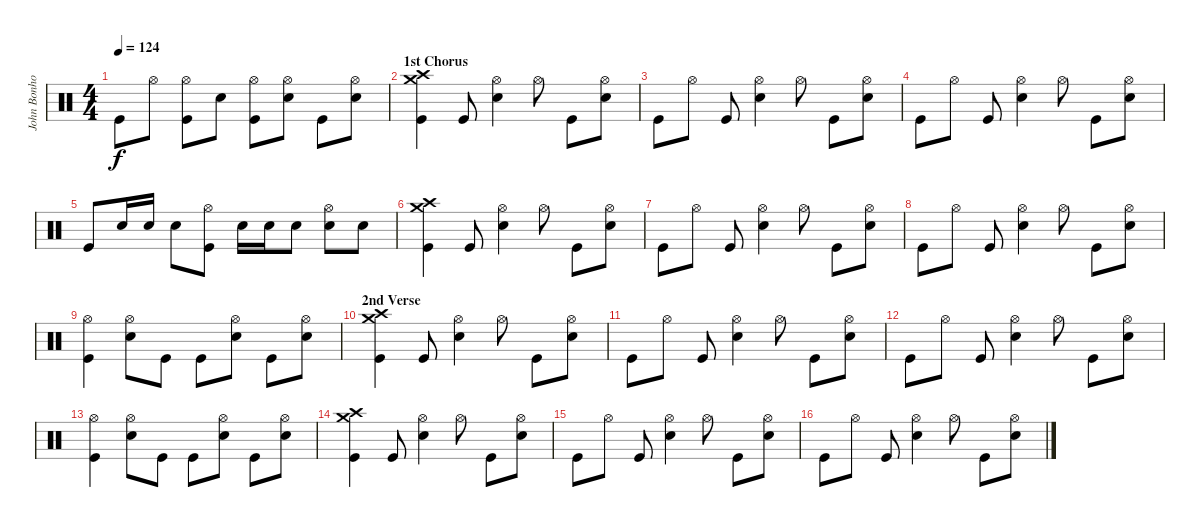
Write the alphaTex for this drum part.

\track ("John Bonhom" "John Bonho") {instrument percussion}
\staff {score}
\articulation defaults
\ts (4 4)
\tempo 124
\clef neutral
\ks c "Kick (hit)".8{dy f} "Hi-Hat (open)".8
("Hi-Hat (open)" "Kick (hit)").8 "Electric Snare (hit)".8 ("Hi-Hat (open)" "Kick (hit)").8 ("Hi-Hat (open)" "Electric Snare (hit)").8 "Kick (hit)".8 ("Hi-Hat (open)" "Electric Snare (hit)").8 |
\section ("" "1st Chorus")
("Crash high (hit)" "Crash medium (hit)" "Kick (hit)").4 "Kick (hit)".8 ("Hi-Hat (open)" "Electric Snare (hit)").4 "Hi-Hat (open)".8 "Kick (hit)".8 ("Hi-Hat (open)" "Electric Snare (hit)").8 |
"Kick (hit)".8 "Hi-Hat (open)".8 "Kick (hit)".8 ("Hi-Hat (open)" "Electric Snare (hit)").4 "Hi-Hat (open)".8 "Kick (hit)".8 ("Hi-Hat (open)" "Electric Snare (hit)").8 |
"Kick (hit)".8 "Hi-Hat (open)".8 "Kick (hit)".8 ("Hi-Hat (open)" "Electric Snare (hit)").4 "Hi-Hat (open)".8 "Kick (hit)".8 ("Hi-Hat (open)" "Electric Snare (hit)").8 |
"Kick (hit)".8 "Electric Snare (hit)".16 "Electric Snare (hit)".16 "Electric Snare (hit)".8 ("Hi-Hat (open)" "Kick (hit)").8 "Electric Snare (hit)".16 "Electric Snare (hit)".16 "Electric Snare (hit)".8 ("Hi-Hat (open)" "Electric Snare (hit)").8 "Electric Snare (hit)".8 |
("Crash high (hit)" "Crash medium (hit)" "Kick (hit)").4 "Kick (hit)".8 ("Hi-Hat (open)" "Electric Snare (hit)").4 "Hi-Hat (open)".8 "Kick (hit)".8 ("Hi-Hat (open)" "Electric Snare (hit)").8 |
"Kick (hit)".8 "Hi-Hat (open)".8 "Kick (hit)".8 ("Hi-Hat (open)" "Electric Snare (hit)").4 "Hi-Hat (open)".8 "Kick (hit)".8 ("Hi-Hat (open)" "Electric Snare (hit)").8 |
"Kick (hit)".8 "Hi-Hat (open)".8 "Kick (hit)".8 ("Hi-Hat (open)" "Electric Snare (hit)").4 "Hi-Hat (open)".8 "Kick (hit)".8 ("Hi-Hat (open)" "Electric Snare (hit)").8 |
("Hi-Hat (open)" "Kick (hit)").4 ("Hi-Hat (open)" "Electric Snare (hit)").8 "Kick (hit)".8 "Kick (hit)".8 ("Hi-Hat (open)" "Electric Snare (hit)").8 "Kick (hit)".8 ("Hi-Hat (open)" "Electric Snare (hit)").8 |
\section ("" "2nd Verse")
("Crash high (hit)" "Crash medium (hit)" "Kick (hit)").4 "Kick (hit)".8 ("Hi-Hat (open)" "Electric Snare (hit)").4 "Hi-Hat (open)".8 "Kick (hit)".8 ("Hi-Hat (open)" "Electric Snare (hit)").8 |
"Kick (hit)".8 "Hi-Hat (open)".8 "Kick (hit)".8 ("Hi-Hat (open)" "Electric Snare (hit)").4 "Hi-Hat (open)".8 "Kick (hit)".8 ("Hi-Hat (open)" "Electric Snare (hit)").8 |
"Kick (hit)".8 "Hi-Hat (open)".8 "Kick (hit)".8 ("Hi-Hat (open)" "Electric Snare (hit)").4 "Hi-Hat (open)".8 "Kick (hit)".8 ("Hi-Hat (open)" "Electric Snare (hit)").8 |
("Hi-Hat (open)" "Kick (hit)").4 ("Hi-Hat (open)" "Electric Snare (hit)").8 "Kick (hit)".8 "Kick (hit)".8 ("Hi-Hat (open)" "Electric Snare (hit)").8 "Kick (hit)".8 ("Hi-Hat (open)" "Electric Snare (hit)").8 |
("Crash high (hit)" "Crash medium (hit)" "Kick (hit)").4 "Kick (hit)".8 ("Hi-Hat (open)" "Electric Snare (hit)").4 "Hi-Hat (open)".8 "Kick (hit)".8 ("Hi-Hat (open)" "Electric Snare (hit)").8 |
"Kick (hit)".8 "Hi-Hat (open)".8 "Kick (hit)".8 ("Hi-Hat (open)" "Electric Snare (hit)").4 "Hi-Hat (open)".8 "Kick (hit)".8 ("Hi-Hat (open)" "Electric Snare (hit)").8 |
"Kick (hit)".8 "Hi-Hat (open)".8 "Kick (hit)".8 ("Hi-Hat (open)" "Electric Snare (hit)").4 "Hi-Hat (open)".8 "Kick (hit)".8 ("Hi-Hat (open)" "Electric Snare (hit)").8
